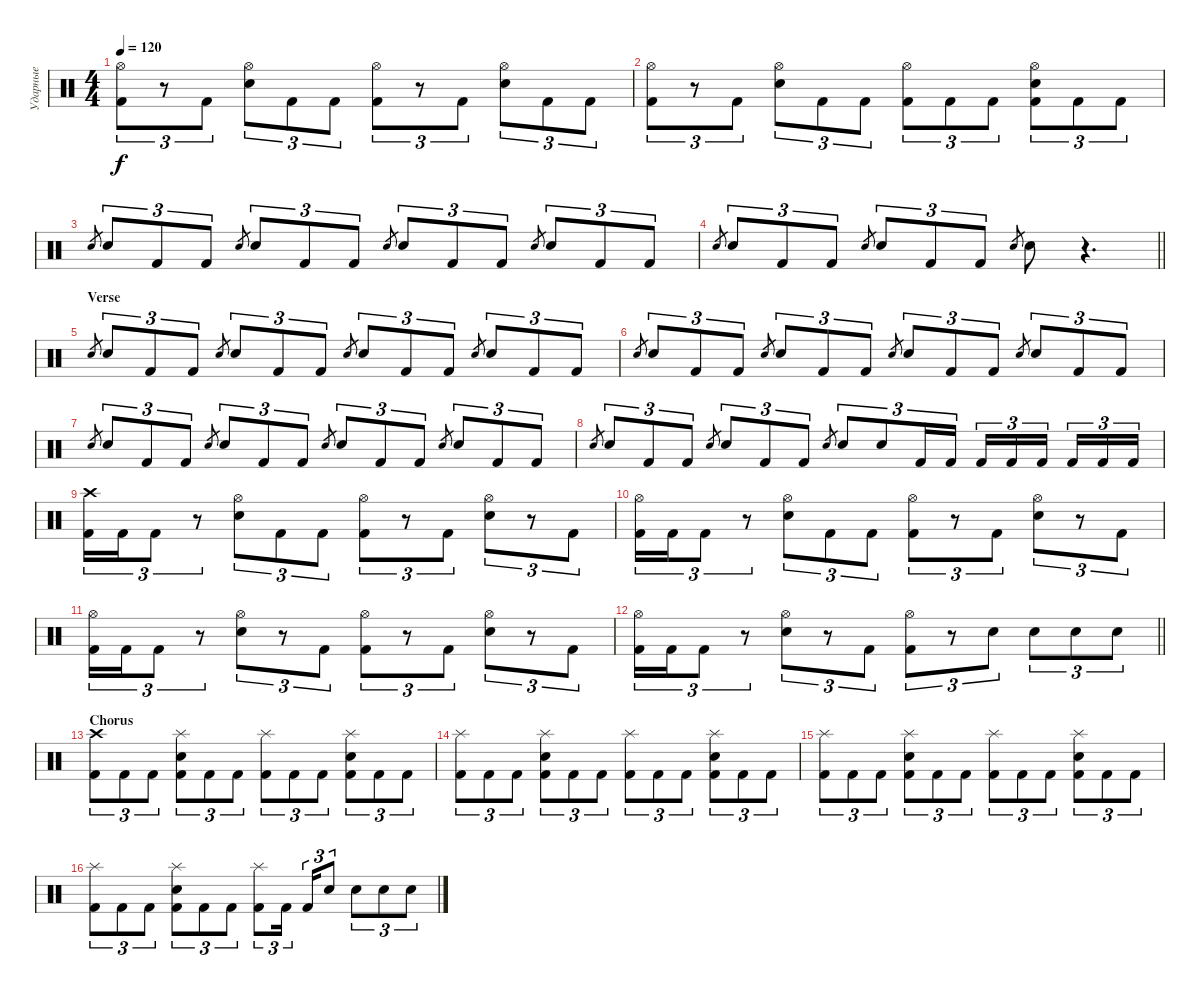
\track ("Ударные" "Ударные") {instrument percussion}
\staff {score}
\articulation defaults
\ts (4 4)
\tempo 120
\clef neutral
\ks c
("Hi-Hat (open)" "Kick (hit) 2").8{tu (3 2) dy f} r.8{tu (3 2)} "Kick (hit) 2".8{tu (3 2)} ("Hi-Hat (open)" "Electric Snare (hit)").8{tu (3 2)} "Kick (hit) 2".8{tu (3 2)} "Kick (hit) 2".8{tu (3 2)} ("Hi-Hat (open)" "Kick (hit) 2").8{tu (3 2)} r.8{tu (3 2)} "Kick (hit) 2".8{tu (3 2)} ("Hi-Hat (open)" "Electric Snare (hit)").8{tu (3 2)} "Kick (hit) 2".8{tu (3 2)} "Kick (hit) 2".8{tu (3 2)} |
("Hi-Hat (open)" "Kick (hit) 2").8{tu (3 2)} r.8{tu (3 2)} "Kick (hit) 2".8{tu (3 2)} ("Hi-Hat (open)" "Electric Snare (hit)").8{tu (3 2)} "Kick (hit) 2".8{tu (3 2)} "Kick (hit) 2".8{tu (3 2)} ("Hi-Hat (open)" "Kick (hit) 2").8{tu (3 2)} "Kick (hit) 2".8{tu (3 2)} "Kick (hit) 2".8{tu (3 2)} ("Hi-Hat (open)" "Electric Snare (hit)" "Kick (hit) 2").8{tu (3 2)} "Kick (hit) 2".8{tu (3 2)} "Kick (hit) 2".8{tu (3 2)} |
"Electric Snare (hit)".8{gr} "Electric Snare (hit)".8{tu (3 2)} "Kick (hit) 2".8{tu (3 2)} "Kick (hit) 2".8{tu (3 2)} "Electric Snare (hit)".8{gr} "Electric Snare (hit)".8{tu (3 2)} "Kick (hit) 2".8{tu (3 2)} "Kick (hit) 2".8{tu (3 2)} "Electric Snare (hit)".8{gr} "Electric Snare (hit)".8{tu (3 2)} "Kick (hit) 2".8{tu (3 2)} "Kick (hit) 2".8{tu (3 2)} "Electric Snare (hit)".8{gr} "Electric Snare (hit)".8{tu (3 2)} "Kick (hit) 2".8{tu (3 2)} "Kick (hit) 2".8{tu (3 2)} |
\barLineRight lightlight "Electric Snare (hit)".8{gr} "Electric Snare (hit)".8{tu (3 2)} "Kick (hit) 2".8{tu (3 2)} "Kick (hit) 2".8{tu (3 2)} "Electric Snare (hit)".8{gr} "Electric Snare (hit)".8{tu (3 2)} "Kick (hit) 2".8{tu (3 2)} "Kick (hit) 2".8{tu (3 2)} "Electric Snare (hit)".8{gr} "Electric Snare (hit)".8
r.4{d} |
\section ("" "Verse")
"Electric Snare (hit)".8{gr} "Electric Snare (hit)".8{tu (3 2)} "Kick (hit) 2".8{tu (3 2)} "Kick (hit) 2".8{tu (3 2)} "Electric Snare (hit)".8{gr} "Electric Snare (hit)".8{tu (3 2)} "Kick (hit) 2".8{tu (3 2)} "Kick (hit) 2".8{tu (3 2)} "Electric Snare (hit)".8{gr} "Electric Snare (hit)".8{tu (3 2)} "Kick (hit) 2".8{tu (3 2)} "Kick (hit) 2".8{tu (3 2)} "Electric Snare (hit)".8{gr} "Electric Snare (hit)".8{tu (3 2)} "Kick (hit) 2".8{tu (3 2)} "Kick (hit) 2".8{tu (3 2)} |
"Electric Snare (hit)".8{gr} "Electric Snare (hit)".8{tu (3 2)} "Kick (hit) 2".8{tu (3 2)} "Kick (hit) 2".8{tu (3 2)} "Electric Snare (hit)".8{gr} "Electric Snare (hit)".8{tu (3 2)} "Kick (hit) 2".8{tu (3 2)} "Kick (hit) 2".8{tu (3 2)} "Electric Snare (hit)".8{gr} "Electric Snare (hit)".8{tu (3 2)} "Kick (hit) 2".8{tu (3 2)} "Kick (hit) 2".8{tu (3 2)} "Electric Snare (hit)".8{gr} "Electric Snare (hit)".8{tu (3 2)} "Kick (hit) 2".8{tu (3 2)} "Kick (hit) 2".8{tu (3 2)} |
"Electric Snare (hit)".8{gr} "Electric Snare (hit)".8{tu (3 2)} "Kick (hit) 2".8{tu (3 2)} "Kick (hit) 2".8{tu (3 2)} "Electric Snare (hit)".8{gr} "Electric Snare (hit)".8{tu (3 2)} "Kick (hit) 2".8{tu (3 2)} "Kick (hit) 2".8{tu (3 2)} "Electric Snare (hit)".8{gr} "Electric Snare (hit)".8{tu (3 2)} "Kick (hit) 2".8{tu (3 2)} "Kick (hit) 2".8{tu (3 2)} "Electric Snare (hit)".8{gr} "Electric Snare (hit)".8{tu (3 2)} "Kick (hit) 2".8{tu (3 2)} "Kick (hit) 2".8{tu (3 2)} |
"Electric Snare (hit)".8{gr} "Electric Snare (hit)".8{tu (3 2)} "Kick (hit) 2".8{tu (3 2)} "Kick (hit) 2".8{tu (3 2)} "Electric Snare (hit)".8{gr} "Electric Snare (hit)".8{tu (3 2)} "Kick (hit) 2".8{tu (3 2)} "Kick (hit) 2".8{tu (3 2)} "Electric Snare (hit)".8{gr} "Electric Snare (hit)".8{tu (3 2)} "Electric Snare (hit)".8{tu (3 2)} "Kick (hit) 2".16{tu (3 2)} "Kick (hit) 2".16{tu (3 2)} "Kick (hit) 2".16{tu (3 2)} "Kick (hit) 2".16{tu (3 2)} "Kick (hit) 2".16{tu (3 2)} "Kick (hit) 2".16{tu (3 2)} "Kick (hit) 2".16{tu (3 2)} "Kick (hit) 2".16{tu (3 2)} |
("Crash high (hit)" "Kick (hit) 2").16{tu (3 2)} "Kick (hit) 2".16{tu (3 2)} "Kick (hit) 2".8{tu (3 2)} r.8{tu (3 2)} ("Hi-Hat (open)" "Electric Snare (hit)").8{tu (3 2)} "Kick (hit) 2".8{tu (3 2)} "Kick (hit) 2".8{tu (3 2)} ("Hi-Hat (open)" "Kick (hit) 2").8{tu (3 2)} r.8{tu (3 2)} "Kick (hit) 2".8{tu (3 2)} ("Hi-Hat (open)" "Electric Snare (hit)").8{tu (3 2)} r.8{tu (3 2)} "Kick (hit) 2".8{tu (3 2)} |
("Hi-Hat (open)" "Kick (hit) 2").16{tu (3 2)} "Kick (hit) 2".16{tu (3 2)} "Kick (hit) 2".8{tu (3 2)} r.8{tu (3 2)} ("Hi-Hat (open)" "Electric Snare (hit)").8{tu (3 2)} "Kick (hit) 2".8{tu (3 2)} "Kick (hit) 2".8{tu (3 2)} ("Hi-Hat (open)" "Kick (hit) 2").8{tu (3 2)} r.8{tu (3 2)} "Kick (hit) 2".8{tu (3 2)} ("Hi-Hat (open)" "Electric Snare (hit)").8{tu (3 2)} r.8{tu (3 2)} "Kick (hit) 2".8{tu (3 2)} |
("Hi-Hat (open)" "Kick (hit) 2").16{tu (3 2)} "Kick (hit) 2".16{tu (3 2)} "Kick (hit) 2".8{tu (3 2)} r.8{tu (3 2)} ("Hi-Hat (open)" "Electric Snare (hit)").8{tu (3 2)} r.8{tu (3 2)} "Kick (hit) 2".8{tu (3 2)} ("Hi-Hat (open)" "Kick (hit) 2").8{tu (3 2)} r.8{tu (3 2)} "Kick (hit) 2".8{tu (3 2)} ("Hi-Hat (open)" "Electric Snare (hit)").8{tu (3 2)} r.8{tu (3 2)} "Kick (hit) 2".8{tu (3 2)} |
\barLineRight lightlight
("Hi-Hat (open)" "Kick (hit) 2").16{tu (3 2)} "Kick (hit) 2".16{tu (3 2)} "Kick (hit) 2".8{tu (3 2)} r.8{tu (3 2)} ("Hi-Hat (open)" "Electric Snare (hit)").8{tu (3 2)} r.8{tu (3 2)} "Kick (hit) 2".8{tu (3 2)} ("Hi-Hat (open)" "Kick (hit) 2").8{tu (3 2)} r.8{tu (3 2)} "Electric Snare (hit)".8{tu (3 2)} "Electric Snare (hit)".8{tu (3 2)} "Electric Snare (hit)".8{tu (3 2)} "Electric Snare (hit)".8{tu (3 2)} |
\section ("" "Chorus")
("Crash high (hit)" "Kick (hit) 2").8{tu (3 2)} "Kick (hit) 2".8{tu (3 2)} "Kick (hit) 2".8{tu (3 2)} ("Splash (hit)" "Electric Snare (hit)" "Kick (hit) 2").8{tu (3 2)} "Kick (hit) 2".8{tu (3 2)} "Kick (hit) 2".8{tu (3 2)} ("Splash (hit)" "Kick (hit) 2").8{tu (3 2)} "Kick (hit) 2".8{tu (3 2)} "Kick (hit) 2".8{tu (3 2)} ("Splash (hit)" "Electric Snare (hit)" "Kick (hit) 2").8{tu (3 2)} "Kick (hit) 2".8{tu (3 2)} "Kick (hit) 2".8{tu (3 2)} |
("Splash (hit)" "Kick (hit) 2").8{tu (3 2)} "Kick (hit) 2".8{tu (3 2)} "Kick (hit) 2".8{tu (3 2)} ("Splash (hit)" "Electric Snare (hit)" "Kick (hit) 2").8{tu (3 2)} "Kick (hit) 2".8{tu (3 2)} "Kick (hit) 2".8{tu (3 2)} ("Splash (hit)" "Kick (hit) 2").8{tu (3 2)} "Kick (hit) 2".8{tu (3 2)} "Kick (hit) 2".8{tu (3 2)} ("Splash (hit)" "Electric Snare (hit)" "Kick (hit) 2").8{tu (3 2)} "Kick (hit) 2".8{tu (3 2)} "Kick (hit) 2".8{tu (3 2)} |
("Splash (hit)" "Kick (hit) 2").8{tu (3 2)} "Kick (hit) 2".8{tu (3 2)} "Kick (hit) 2".8{tu (3 2)} ("Splash (hit)" "Electric Snare (hit)" "Kick (hit) 2").8{tu (3 2)} "Kick (hit) 2".8{tu (3 2)} "Kick (hit) 2".8{tu (3 2)} ("Splash (hit)" "Kick (hit) 2").8{tu (3 2)} "Kick (hit) 2".8{tu (3 2)} "Kick (hit) 2".8{tu (3 2)} ("Splash (hit)" "Electric Snare (hit)" "Kick (hit) 2").8{tu (3 2)} "Kick (hit) 2".8{tu (3 2)} "Kick (hit) 2".8{tu (3 2)} |
("Splash (hit)" "Kick (hit) 2").8{tu (3 2)} "Kick (hit) 2".8{tu (3 2)} "Kick (hit) 2".8{tu (3 2)} ("Splash (hit)" "Electric Snare (hit)" "Kick (hit) 2").8{tu (3 2)} "Kick (hit) 2".8{tu (3 2)} "Kick (hit) 2".8{tu (3 2)} ("Splash (hit)" "Kick (hit) 2").8{tu (3 2)} "Kick (hit) 2".16{tu (3 2)} "Kick (hit) 2".16{tu (3 2)} "Electric Snare (hit)".8{tu (3 2)} "Electric Snare (hit)".8{tu (3 2)} "Electric Snare (hit)".8{tu (3 2)} "Electric Snare (hit)".8{tu (3 2)}
